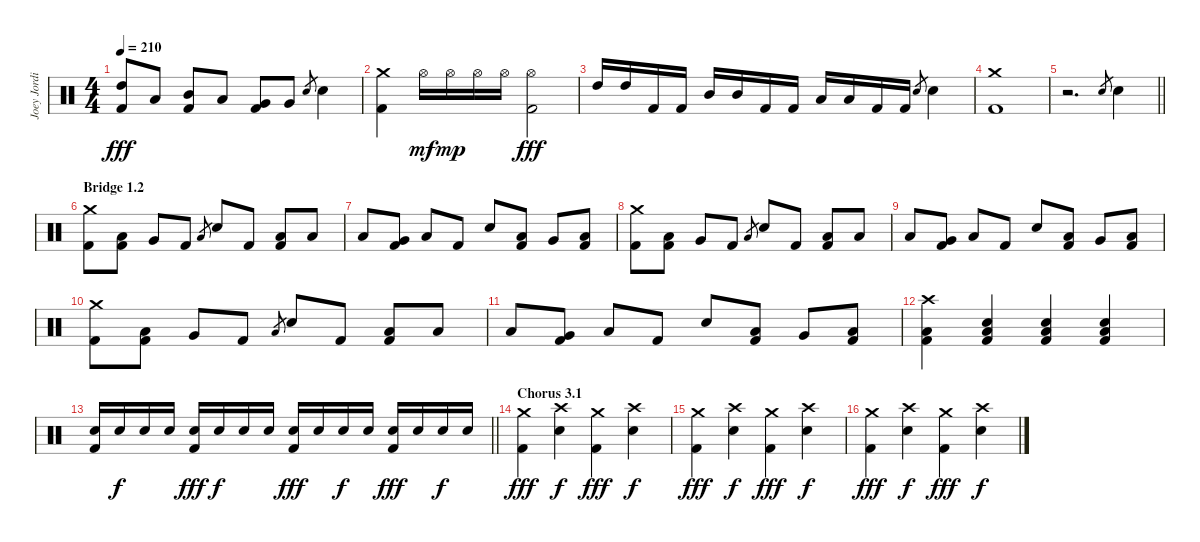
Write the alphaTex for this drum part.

\track ("Joey Jordison" "Joey Jordi") {instrument percussion}
\staff {score}
\articulation defaults
\ts (4 4)
\tempo 210
\clef neutral
\ks c
("High Tom (hit)" "Kick (hit) 2").8{dy fff} "Low Tom (hit)".8 ("Mid Tom (hit)" "Kick (hit) 2").8 "Low Tom (hit)".8 ("Very Low Tom (hit)" "Kick (hit) 2").8 "Very Low Tom (hit)".8 "Electric Snare (hit)".8{gr} "Electric Snare (hit)".4 |
("Crash medium (hit)" "Kick (hit) 2").4 "Hi-Hat (open)".16{dy mf} "Hi-Hat (open)".16{dy mp} "Hi-Hat (open)".16 "Hi-Hat (open)".16 ("Hi-Hat (open)" "Kick (hit) 2").2{dy fff} |
"High Tom (hit)".16 "High Tom (hit)".16 "Kick (hit) 2".16 "Kick (hit) 2".16 "Mid Tom (hit)".16 "Mid Tom (hit)".16 "Kick (hit) 2".16 "Kick (hit) 2".16 "Low Tom (hit)".16 "Low Tom (hit)".16 "Kick (hit) 2".16 "Kick (hit) 2".16 "Electric Snare (hit)".8{gr} "Electric Snare (hit)".4 |
("Crash medium (hit)" "Kick (hit) 2").1 |
\barLineRight lightlight
r.2{d} "Electric Snare (hit)".8{gr} "Electric Snare (hit)".4 |
\section ("" "Bridge 1.2")
("Crash medium (hit)" "Kick (hit) 2").8 ("Low Tom (hit)" "Kick (hit) 2").8 "Very Low Tom (hit)".8 "Kick (hit) 2".8 "Low Floor Tom (hit)".8{gr} "Electric Snare (hit)".8 "Kick (hit) 2".8 ("Low Floor Tom (hit)" "Kick (hit) 2").8 "Low Tom (hit)".8 |
"Low Floor Tom (hit)".8 ("Very Low Tom (hit)" "Kick (hit) 2").8 "Low Floor Tom (hit)".8 "Kick (hit) 2".8 "Electric Snare (hit)".8 ("Low Tom (hit)" "Kick (hit) 2").8 "Very Low Tom (hit)".8 ("Low Floor Tom (hit)" "Kick (hit) 2").8 |
("Crash medium (hit)" "Kick (hit) 2").8 ("Low Tom (hit)" "Kick (hit) 2").8 "Very Low Tom (hit)".8 "Kick (hit) 2".8 "Low Floor Tom (hit)".8{gr} "Electric Snare (hit)".8 "Kick (hit) 2".8 ("Low Floor Tom (hit)" "Kick (hit) 2").8 "Low Tom (hit)".8 |
"Low Floor Tom (hit)".8 ("Very Low Tom (hit)" "Kick (hit) 2").8 "Low Floor Tom (hit)".8 "Kick (hit) 2".8 "Electric Snare (hit)".8 ("Low Tom (hit)" "Kick (hit) 2").8 "Very Low Tom (hit)".8 ("Low Floor Tom (hit)" "Kick (hit) 2").8 |
("Crash medium (hit)" "Kick (hit) 2").8 ("Low Tom (hit)" "Kick (hit) 2").8 "Very Low Tom (hit)".8 "Kick (hit) 2".8 "Low Floor Tom (hit)".8{gr} "Electric Snare (hit)".8 "Kick (hit) 2".8 ("Low Floor Tom (hit)" "Kick (hit) 2").8 "Low Tom (hit)".8 |
"Low Floor Tom (hit)".8 ("Very Low Tom (hit)" "Kick (hit) 2").8 "Low Floor Tom (hit)".8 "Kick (hit) 2".8 "Electric Snare (hit)".8 ("Low Tom (hit)" "Kick (hit) 2").8 "Very Low Tom (hit)".8 ("Low Floor Tom (hit)" "Kick (hit) 2").8 |
("Crash high (hit)" "Low Floor Tom (hit)" "Kick (hit) 2").4 ("Electric Snare (hit)" "Low Floor Tom (hit)" "Kick (hit) 2").4 ("Electric Snare (hit)" "Low Floor Tom (hit)" "Kick (hit) 2").4 ("Electric Snare (hit)" "Low Floor Tom (hit)" "Kick (hit) 2").4 |
\barLineRight lightlight
("Electric Snare (hit)" "Kick (hit) 2").16 "Electric Snare (hit)".16{dy f} "Electric Snare (hit)".16 "Electric Snare (hit)".16 ("Electric Snare (hit)" "Kick (hit) 2").16{dy fff} "Electric Snare (hit)".16{dy f} "Electric Snare (hit)".16 "Electric Snare (hit)".16 ("Electric Snare (hit)" "Kick (hit) 2").16{dy fff} "Electric Snare (hit)".16 "Electric Snare (hit)".16{dy f} "Electric Snare (hit)".16 ("Electric Snare (hit)" "Kick (hit) 2").16{dy fff} "Electric Snare (hit)".16 "Electric Snare (hit)".16{dy f} "Electric Snare (hit)".16 |
\section ("" "Chorus 3.1")
("Crash medium (hit)" "Kick (hit) 2").4{dy fff} ("Crash high (hit)" "Electric Snare (hit)").4{dy f} ("Crash medium (hit)" "Kick (hit) 2").4{dy fff} ("Crash high (hit)" "Electric Snare (hit)").4{dy f} |
("Crash medium (hit)" "Kick (hit) 2").4{dy fff} ("Crash high (hit)" "Electric Snare (hit)").4{dy f} ("Crash medium (hit)" "Kick (hit) 2").4{dy fff} ("Crash high (hit)" "Electric Snare (hit)").4{dy f} |
("Crash medium (hit)" "Kick (hit) 2").4{dy fff} ("Crash high (hit)" "Electric Snare (hit)").4{dy f} ("Crash medium (hit)" "Kick (hit) 2").4{dy fff} ("Crash high (hit)" "Electric Snare (hit)").4{dy f}
